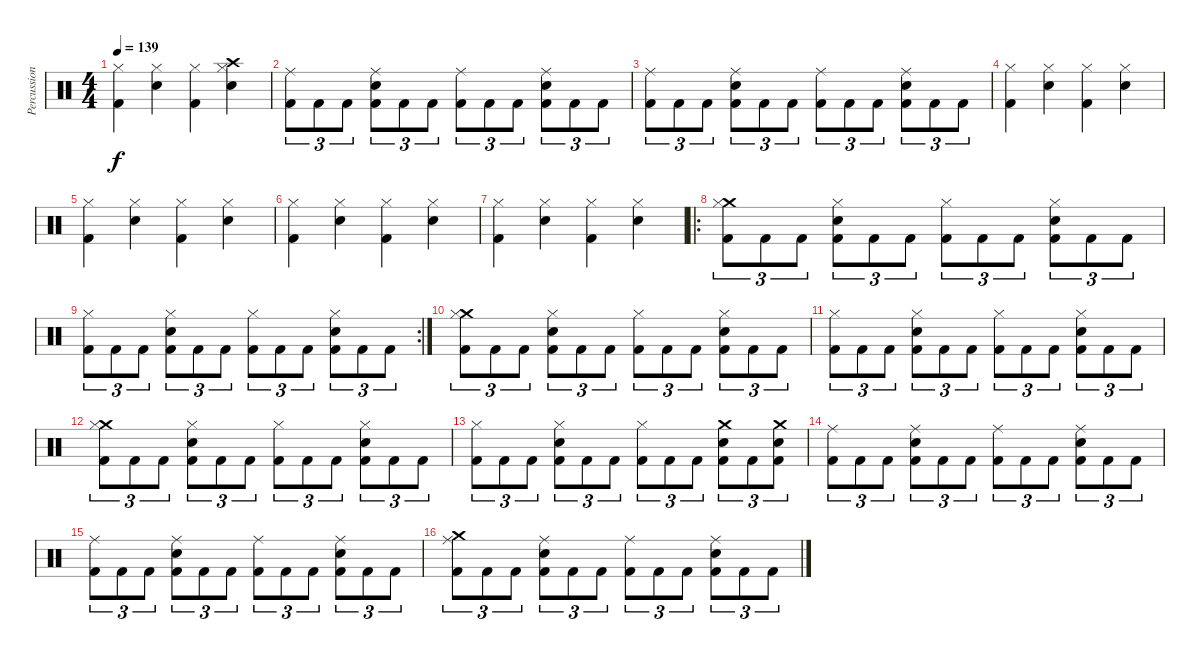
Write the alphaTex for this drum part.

\track ("Percussions" "Percussion") {instrument percussion}
\staff {score}
\articulation defaults
\ts (4 4)
\tempo 139
\clef neutral
\ks c
("Hi-Hat (closed)" "Kick (hit) 2").4{dy f} ("Hi-Hat (closed)" "Snare (hit) 2").4 ("Hi-Hat (closed)" "Kick (hit) 2").4 ("Hi-Hat (closed)" "Snare (hit) 2" "Crash high (hit)").4 |
("Kick (hit) 2" "Ride (middle)").8{tu (3 2)} "Kick (hit) 2".8{tu (3 2)} "Kick (hit) 2".8{tu (3 2)} ("Kick (hit) 2" "Ride (middle)" "Snare (hit) 2").8{tu (3 2)} "Kick (hit) 2".8{tu (3 2)} "Kick (hit) 2".8{tu (3 2)} ("Kick (hit) 2" "Ride (middle)").8{tu (3 2)} "Kick (hit) 2".8{tu (3 2)} "Kick (hit) 2".8{tu (3 2)} ("Kick (hit) 2" "Ride (middle)" "Snare (hit) 2").8{tu (3 2)} "Kick (hit) 2".8{tu (3 2)} "Kick (hit) 2".8{tu (3 2)} |
("Kick (hit) 2" "Ride (middle)").8{tu (3 2)} "Kick (hit) 2".8{tu (3 2)} "Kick (hit) 2".8{tu (3 2)} ("Kick (hit) 2" "Ride (middle)" "Snare (hit) 2").8{tu (3 2)} "Kick (hit) 2".8{tu (3 2)} "Kick (hit) 2".8{tu (3 2)} ("Kick (hit) 2" "Ride (middle)").8{tu (3 2)} "Kick (hit) 2".8{tu (3 2)} "Kick (hit) 2".8{tu (3 2)} ("Kick (hit) 2" "Ride (middle)" "Snare (hit) 2").8{tu (3 2)} "Kick (hit) 2".8{tu (3 2)} "Kick (hit) 2".8{tu (3 2)} |
("Hi-Hat (closed)" "Kick (hit) 2").4 ("Hi-Hat (closed)" "Snare (hit) 2").4 ("Hi-Hat (closed)" "Kick (hit) 2").4 ("Hi-Hat (closed)" "Snare (hit) 2").4 |
("Hi-Hat (closed)" "Kick (hit) 2").4 ("Hi-Hat (closed)" "Snare (hit) 2").4 ("Hi-Hat (closed)" "Kick (hit) 2").4 ("Hi-Hat (closed)" "Snare (hit) 2").4 |
("Hi-Hat (closed)" "Kick (hit) 2").4 ("Hi-Hat (closed)" "Snare (hit) 2").4 ("Hi-Hat (closed)" "Kick (hit) 2").4 ("Hi-Hat (closed)" "Snare (hit) 2").4 |
("Hi-Hat (closed)" "Kick (hit) 2").4 ("Hi-Hat (closed)" "Snare (hit) 2").4 ("Hi-Hat (closed)" "Kick (hit) 2").4 ("Hi-Hat (closed)" "Snare (hit) 2").4 |
\ro
("Crash medium (hit)" "Hi-Hat (closed)" "Kick (hit) 2").8{tu (3 2)} "Kick (hit) 2".8{tu (3 2)} "Kick (hit) 2".8{tu (3 2)} ("Hi-Hat (closed)" "Snare (hit) 2" "Kick (hit) 2").8{tu (3 2)} "Kick (hit) 2".8{tu (3 2)} "Kick (hit) 2".8{tu (3 2)} ("Hi-Hat (closed)" "Kick (hit) 2").8{tu (3 2)} "Kick (hit) 2".8{tu (3 2)} "Kick (hit) 2".8{tu (3 2)} ("Hi-Hat (closed)" "Snare (hit) 2" "Kick (hit) 2").8{tu (3 2)} "Kick (hit) 2".8{tu (3 2)} "Kick (hit) 2".8{tu (3 2)} |
\rc 2
("Hi-Hat (closed)" "Kick (hit) 2").8{tu (3 2)} "Kick (hit) 2".8{tu (3 2)} "Kick (hit) 2".8{tu (3 2)} ("Hi-Hat (closed)" "Snare (hit) 2" "Kick (hit) 2").8{tu (3 2)} "Kick (hit) 2".8{tu (3 2)} "Kick (hit) 2".8{tu (3 2)} ("Hi-Hat (closed)" "Kick (hit) 2").8{tu (3 2)} "Kick (hit) 2".8{tu (3 2)} "Kick (hit) 2".8{tu (3 2)} ("Hi-Hat (closed)" "Snare (hit) 2" "Kick (hit) 2").8{tu (3 2)} "Kick (hit) 2".8{tu (3 2)} "Kick (hit) 2".8{tu (3 2)} |
("Crash medium (hit)" "Hi-Hat (closed)" "Kick (hit) 2").8{tu (3 2)} "Kick (hit) 2".8{tu (3 2)} "Kick (hit) 2".8{tu (3 2)} ("Hi-Hat (closed)" "Snare (hit) 2" "Kick (hit) 2").8{tu (3 2)} "Kick (hit) 2".8{tu (3 2)} "Kick (hit) 2".8{tu (3 2)} ("Hi-Hat (closed)" "Kick (hit) 2").8{tu (3 2)} "Kick (hit) 2".8{tu (3 2)} "Kick (hit) 2".8{tu (3 2)} ("Hi-Hat (closed)" "Snare (hit) 2" "Kick (hit) 2").8{tu (3 2)} "Kick (hit) 2".8{tu (3 2)} "Kick (hit) 2".8{tu (3 2)} |
("Hi-Hat (closed)" "Kick (hit) 2").8{tu (3 2)} "Kick (hit) 2".8{tu (3 2)} "Kick (hit) 2".8{tu (3 2)} ("Hi-Hat (closed)" "Snare (hit) 2" "Kick (hit) 2").8{tu (3 2)} "Kick (hit) 2".8{tu (3 2)} "Kick (hit) 2".8{tu (3 2)} ("Hi-Hat (closed)" "Kick (hit) 2").8{tu (3 2)} "Kick (hit) 2".8{tu (3 2)} "Kick (hit) 2".8{tu (3 2)} ("Hi-Hat (closed)" "Snare (hit) 2" "Kick (hit) 2").8{tu (3 2)} "Kick (hit) 2".8{tu (3 2)} "Kick (hit) 2".8{tu (3 2)} |
("Crash medium (hit)" "Hi-Hat (closed)" "Kick (hit) 2").8{tu (3 2)} "Kick (hit) 2".8{tu (3 2)} "Kick (hit) 2".8{tu (3 2)} ("Hi-Hat (closed)" "Snare (hit) 2" "Kick (hit) 2").8{tu (3 2)} "Kick (hit) 2".8{tu (3 2)} "Kick (hit) 2".8{tu (3 2)} ("Hi-Hat (closed)" "Kick (hit) 2").8{tu (3 2)} "Kick (hit) 2".8{tu (3 2)} "Kick (hit) 2".8{tu (3 2)} ("Hi-Hat (closed)" "Snare (hit) 2" "Kick (hit) 2").8{tu (3 2)} "Kick (hit) 2".8{tu (3 2)} "Kick (hit) 2".8{tu (3 2)} |
("Hi-Hat (closed)" "Kick (hit) 2").8{tu (3 2)} "Kick (hit) 2".8{tu (3 2)} "Kick (hit) 2".8{tu (3 2)} ("Hi-Hat (closed)" "Snare (hit) 2" "Kick (hit) 2").8{tu (3 2)} "Kick (hit) 2".8{tu (3 2)} "Kick (hit) 2".8{tu (3 2)} ("Hi-Hat (closed)" "Kick (hit) 2").8{tu (3 2)} "Kick (hit) 2".8{tu (3 2)} "Kick (hit) 2".8{tu (3 2)} ("Crash medium (hit)" "Snare (hit) 2" "Kick (hit) 2").8{tu (3 2)} "Kick (hit) 2".8{tu (3 2)} ("Crash medium (hit)" "Snare (hit) 2" "Kick (hit) 2").8{tu (3 2)} |
("Ride (middle)" "Kick (hit) 2").8{tu (3 2)} "Kick (hit) 2".8{tu (3 2)} "Kick (hit) 2".8{tu (3 2)} ("Ride (middle)" "Snare (hit) 2" "Kick (hit) 2").8{tu (3 2)} "Kick (hit) 2".8{tu (3 2)} "Kick (hit) 2".8{tu (3 2)} ("Ride (middle)" "Kick (hit) 2").8{tu (3 2)} "Kick (hit) 2".8{tu (3 2)} "Kick (hit) 2".8{tu (3 2)} ("Ride (middle)" "Snare (hit) 2" "Kick (hit) 2").8{tu (3 2)} "Kick (hit) 2".8{tu (3 2)} "Kick (hit) 2".8{tu (3 2)} |
("Ride (middle)" "Kick (hit) 2").8{tu (3 2)} "Kick (hit) 2".8{tu (3 2)} "Kick (hit) 2".8{tu (3 2)} ("Ride (middle)" "Snare (hit) 2" "Kick (hit) 2").8{tu (3 2)} "Kick (hit) 2".8{tu (3 2)} "Kick (hit) 2".8{tu (3 2)} ("Ride (middle)" "Kick (hit) 2").8{tu (3 2)} "Kick (hit) 2".8{tu (3 2)} "Kick (hit) 2".8{tu (3 2)} ("Ride (middle)" "Snare (hit) 2" "Kick (hit) 2").8{tu (3 2)} "Kick (hit) 2".8{tu (3 2)} "Kick (hit) 2".8{tu (3 2)} |
("Crash medium (hit)" "Ride (middle)" "Kick (hit) 2").8{tu (3 2)} "Kick (hit) 2".8{tu (3 2)} "Kick (hit) 2".8{tu (3 2)} ("Ride (middle)" "Snare (hit) 2" "Kick (hit) 2").8{tu (3 2)} "Kick (hit) 2".8{tu (3 2)} "Kick (hit) 2".8{tu (3 2)} ("Ride (middle)" "Kick (hit) 2").8{tu (3 2)} "Kick (hit) 2".8{tu (3 2)} "Kick (hit) 2".8{tu (3 2)} ("Ride (middle)" "Snare (hit) 2" "Kick (hit) 2").8{tu (3 2)} "Kick (hit) 2".8{tu (3 2)} "Kick (hit) 2".8{tu (3 2)}
